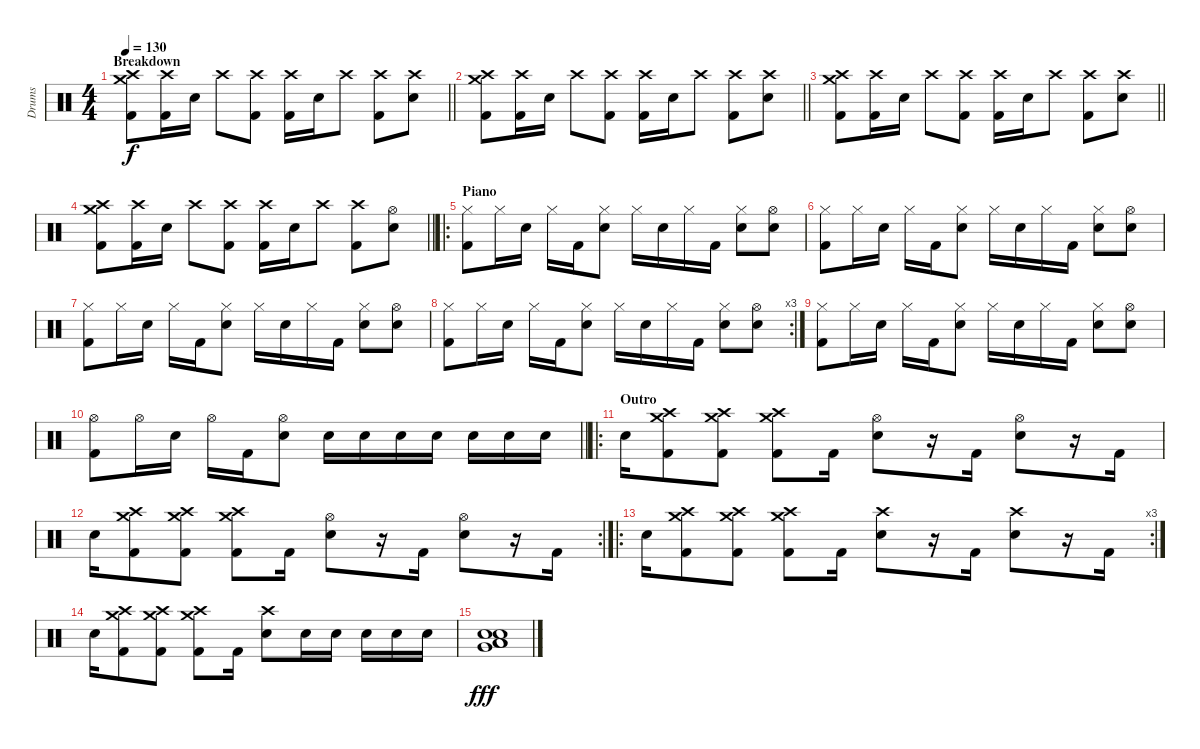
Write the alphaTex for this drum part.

\track ("Drums" "Drums") {instrument percussion}
\staff {score}
\articulation defaults
\ts (4 4)
\section ("" "Breakdown")
\tempo 130
\clef neutral
\barLineRight lightlight
\ks c
("Crash high (hit)" "Crash medium (hit)" "Kick (hit) 2").8{dy f} ("Crash high (hit)" "Kick (hit) 2").16 "Electric Snare (hit)".16 "Crash high (hit)".8 ("Crash high (hit)" "Kick (hit) 2").8 ("Crash high (hit)" "Kick (hit) 2").16 "Electric Snare (hit)".16 "Crash high (hit)".8 ("Crash high (hit)" "Kick (hit) 2").8 ("Crash high (hit)" "Electric Snare (hit)").8 |
\barLineRight lightlight
("Crash high (hit)" "Crash medium (hit)" "Kick (hit) 2").8 ("Crash high (hit)" "Kick (hit) 2").16 "Electric Snare (hit)".16 "Crash high (hit)".8 ("Crash high (hit)" "Kick (hit) 2").8 ("Crash high (hit)" "Kick (hit) 2").16 "Electric Snare (hit)".16 "Crash high (hit)".8 ("Crash high (hit)" "Kick (hit) 2").8 ("Crash high (hit)" "Electric Snare (hit)").8 |
\barLineRight lightlight
("Crash high (hit)" "Crash medium (hit)" "Kick (hit) 2").8 ("Crash high (hit)" "Kick (hit) 2").16 "Electric Snare (hit)".16 "Crash high (hit)".8 ("Crash high (hit)" "Kick (hit) 2").8 ("Crash high (hit)" "Kick (hit) 2").16 "Electric Snare (hit)".16 "Crash high (hit)".8 ("Crash high (hit)" "Kick (hit) 2").8 ("Crash high (hit)" "Electric Snare (hit)").8 |
\barLineRight lightlight
("Crash high (hit)" "Crash medium (hit)" "Kick (hit) 2").8 ("Crash high (hit)" "Kick (hit) 2").16 "Electric Snare (hit)".16 "Crash high (hit)".8 ("Crash high (hit)" "Kick (hit) 2").8 ("Crash high (hit)" "Kick (hit) 2").16 "Electric Snare (hit)".16 "Crash high (hit)".8 ("Crash high (hit)" "Kick (hit) 2").8 ("Hi-Hat (open)" "Electric Snare (hit)").8 |
\ro
\section ("" "Piano")
("Hi-Hat (closed)" "Kick (hit) 2").8 "Hi-Hat (closed)".16 "Electric Snare (hit)".16 "Hi-Hat (closed)".16 "Kick (hit) 2".16 ("Hi-Hat (closed)" "Electric Snare (hit)").8 "Hi-Hat (closed)".16 "Electric Snare (hit)".16 "Hi-Hat (closed)".16 "Kick (hit) 2".16 ("Hi-Hat (closed)" "Electric Snare (hit)").8 ("Hi-Hat (open)" "Electric Snare (hit)").8 |
("Hi-Hat (closed)" "Kick (hit) 2").8 "Hi-Hat (closed)".16 "Electric Snare (hit)".16 "Hi-Hat (closed)".16 "Kick (hit) 2".16 ("Hi-Hat (closed)" "Electric Snare (hit)").8 "Hi-Hat (closed)".16 "Electric Snare (hit)".16 "Hi-Hat (closed)".16 "Kick (hit) 2".16 ("Hi-Hat (closed)" "Electric Snare (hit)").8 ("Hi-Hat (open)" "Electric Snare (hit)").8 |
("Hi-Hat (closed)" "Kick (hit) 2").8 "Hi-Hat (closed)".16 "Electric Snare (hit)".16 "Hi-Hat (closed)".16 "Kick (hit) 2".16 ("Hi-Hat (closed)" "Electric Snare (hit)").8 "Hi-Hat (closed)".16 "Electric Snare (hit)".16 "Hi-Hat (closed)".16 "Kick (hit) 2".16 ("Hi-Hat (closed)" "Electric Snare (hit)").8 ("Hi-Hat (open)" "Electric Snare (hit)").8 |
\rc 3
("Hi-Hat (closed)" "Kick (hit) 2").8 "Hi-Hat (closed)".16 "Electric Snare (hit)".16 "Hi-Hat (closed)".16 "Kick (hit) 2".16 ("Hi-Hat (closed)" "Electric Snare (hit)").8 "Hi-Hat (closed)".16 "Electric Snare (hit)".16 "Hi-Hat (closed)".16 "Kick (hit) 2".16 ("Hi-Hat (closed)" "Electric Snare (hit)").8 ("Hi-Hat (open)" "Electric Snare (hit)").8 |
("Hi-Hat (closed)" "Kick (hit) 2").8 "Hi-Hat (closed)".16 "Electric Snare (hit)".16 "Hi-Hat (closed)".16 "Kick (hit) 2".16 ("Hi-Hat (closed)" "Electric Snare (hit)").8 "Hi-Hat (closed)".16 "Electric Snare (hit)".16 "Hi-Hat (closed)".16 "Kick (hit) 2".16 ("Hi-Hat (closed)" "Electric Snare (hit)").8 ("Hi-Hat (open)" "Electric Snare (hit)").8 |
\barLineRight lightlight
("Hi-Hat (open)" "Kick (hit) 2").8 "Hi-Hat (open)".16 "Electric Snare (hit)".16 "Hi-Hat (open)".16 "Kick (hit) 2".16 ("Hi-Hat (open)" "Electric Snare (hit)").8 "Electric Snare (hit)".16 "Electric Snare (hit)".16 "Electric Snare (hit)".16 "Electric Snare (hit)".16 "Electric Snare (hit)".16 "Electric Snare (hit)".16 "Electric Snare (hit)".16 |
\ro
\section ("" "Outro")
"Electric Snare (hit)".16 ("Crash high (hit)" "Crash medium (hit)" "Kick (hit) 2").8 ("Crash high (hit)" "Crash medium (hit)" "Kick (hit) 2").8 ("Crash high (hit)" "Crash medium (hit)" "Kick (hit) 2").8 "Kick (hit) 2".16 ("Hi-Hat (open)" "Electric Snare (hit)").8 r.16 "Kick (hit) 2".16 ("Hi-Hat (open)" "Electric Snare (hit)").8 r.16 "Kick (hit) 2".16 |
\rc 2 "Electric Snare (hit)".16
("Crash high (hit)" "Crash medium (hit)" "Kick (hit) 2").8 ("Crash high (hit)" "Crash medium (hit)" "Kick (hit) 2").8 ("Crash high (hit)" "Crash medium (hit)" "Kick (hit) 2").8 "Kick (hit) 2".16 ("Hi-Hat (open)" "Electric Snare (hit)").8 r.16 "Kick (hit) 2".16 ("Hi-Hat (open)" "Electric Snare (hit)").8 r.16 "Kick (hit) 2".16 |
\ro
\rc 3 "Electric Snare (hit)".16
("Crash high (hit)" "Crash medium (hit)" "Kick (hit) 2").8 ("Crash high (hit)" "Crash medium (hit)" "Kick (hit) 2").8 ("Crash high (hit)" "Crash medium (hit)" "Kick (hit) 2").8 "Kick (hit) 2".16 ("Crash high (hit)" "Electric Snare (hit)").8 r.16 "Kick (hit) 2".16 ("Crash high (hit)" "Electric Snare (hit)").8 r.16 "Kick (hit) 2".16 |
"Electric Snare (hit)".16 ("Crash high (hit)" "Crash medium (hit)" "Kick (hit) 2").8 ("Crash high (hit)" "Crash medium (hit)" "Kick (hit) 2").8 ("Crash high (hit)" "Crash medium (hit)" "Kick (hit) 2").8 "Kick (hit) 2".16 ("Crash high (hit)" "Electric Snare (hit)").8 "Electric Snare (hit)".16 "Electric Snare (hit)".16 "Electric Snare (hit)".16 "Electric Snare (hit)".16 "Electric Snare (hit)".16 |
("Electric Snare (hit)" "Electric Snare (hit)" "Low Floor Tom (hit)" "Low Tom (hit)" "Very Low Tom (hit)").1{dy fff}
